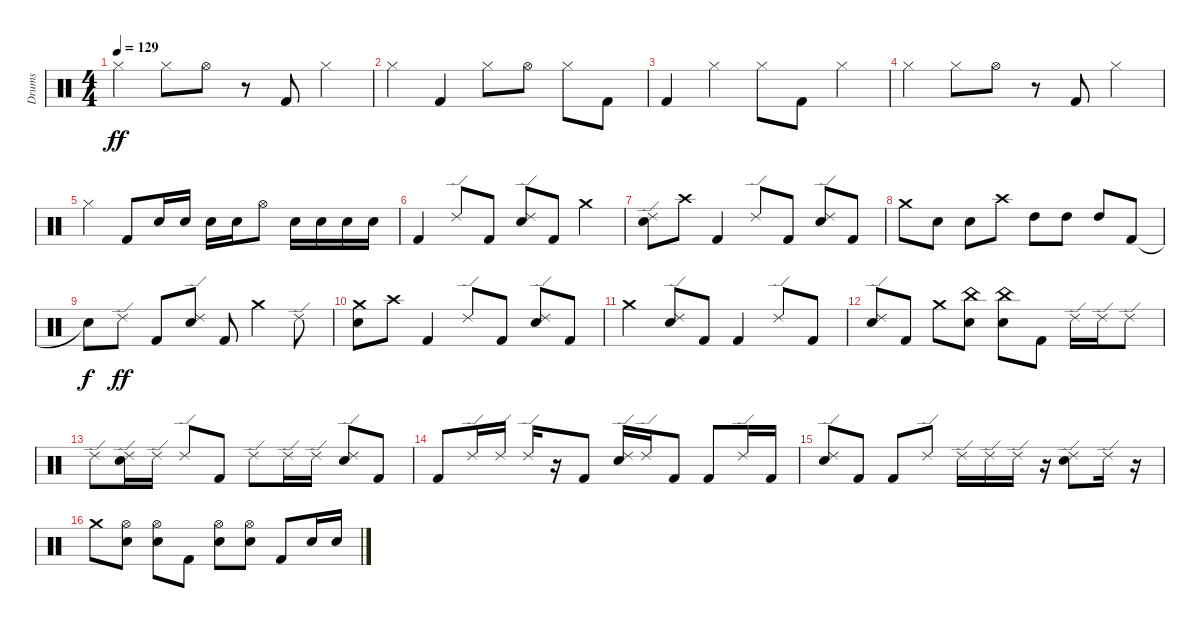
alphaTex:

\track ("Drums" "Drums") {instrument percussion}
\staff {score}
\articulation defaults
\ts (4 4)
\tempo 129
\clef neutral
\ks c "Hi-Hat (closed)".4{dy ff} "Hi-Hat (closed)".8 "Hi-Hat (open)".8
r.8 "Kick (hit) 2".8 "Hi-Hat (closed)".4 |
"Hi-Hat (closed)".4 "Kick (hit) 2".4 "Hi-Hat (closed)".8 "Hi-Hat (open)".8 "Hi-Hat (closed)".8 "Kick (hit) 2".8 |
"Kick (hit) 2".4 "Hi-Hat (closed)".4 "Hi-Hat (closed)".8 "Kick (hit) 2".8 "Hi-Hat (closed)".4 |
"Hi-Hat (closed)".4 "Hi-Hat (closed)".8 "Hi-Hat (open)".8 r.8 "Kick (hit) 2".8 "Hi-Hat (closed)".4 |
"Hi-Hat (closed)".4 "Kick (hit) 2".8 "Electric Snare (hit)".16 "Electric Snare (hit)".16 "Electric Snare (hit)".16 "Electric Snare (hit)".16 "Hi-Hat (open)".8 "Electric Snare (hit)".16 "Electric Snare (hit)".16 "Electric Snare (hit)".16 "Electric Snare (hit)".16 |
"Kick (hit) 2".4 "Ride (edge) 2".8 "Kick (hit) 2".8 ("Electric Snare (hit)" "Ride (edge) 2").8 "Kick (hit) 2".8 "Crash medium (hit)".4 |
("Electric Snare (hit)" "Ride (edge) 2").8 "Crash high (hit)".8 "Kick (hit) 2".4 "Ride (edge) 2".8 "Kick (hit) 2".8 ("Electric Snare (hit)" "Ride (edge) 2").8 "Kick (hit) 2".8 |
"Crash medium (hit)".8 "Electric Snare (hit)".8 "Electric Snare (hit)".8 "Crash high (hit)".8 "High Tom (hit)".8 "High Tom (hit)".8 "High Tom (hit)".8 "Kick (hit) 2".8 |
"Snare (hit)"{t}.8{dy f} "Ride (edge) 2".8{dy ff} "Kick (hit) 2".8 ("Electric Snare (hit)" "Ride (edge) 2").8 "Kick (hit) 2".8 "Crash medium (hit)".4 "Ride (edge) 2".8 |
("Electric Snare (hit)" "Crash medium (hit)").8 "Crash high (hit)".8 "Kick (hit) 2".4 "Ride (edge) 2".8 "Kick (hit) 2".8 ("Electric Snare (hit)" "Ride (edge) 2").8 "Kick (hit) 2".8 |
"Crash medium (hit)".4 ("Electric Snare (hit)" "Ride (edge) 2").8 "Kick (hit) 2".8 "Kick (hit) 2".4 "Ride (edge) 2".8 "Kick (hit) 2".8 |
("Electric Snare (hit)" "Ride (edge) 2").8 "Kick (hit) 2".8 "Crash medium (hit)".8 ("Electric Snare (hit)" "China (hit)").8 ("Electric Snare (hit)" "China (hit)").8 "Kick (hit) 2".8 "Ride (edge) 2".16 "Ride (edge) 2".16 "Ride (edge) 2".8 |
"Ride (edge) 2".8 ("Electric Snare (hit)" "Ride (edge) 2").16 "Ride (edge) 2".16 "Ride (edge) 2".8 "Kick (hit) 2".8 "Ride (edge) 2".8 "Ride (edge) 2".16 "Ride (edge) 2".16 ("Electric Snare (hit)" "Ride (edge) 2").8 "Kick (hit) 2".8 |
"Kick (hit) 2".8 "Ride (edge) 2".16 "Ride (edge) 2".16 "Ride (edge) 2".16 r.16 "Kick (hit) 2".8 ("Electric Snare (hit)" "Ride (edge) 2").16 "Ride (edge) 2".16 "Kick (hit) 2".8 "Kick (hit) 2".8 "Ride (edge) 2".16 "Kick (hit) 2".16 |
("Electric Snare (hit)" "Ride (edge) 2").8 "Kick (hit) 2".8 "Kick (hit) 2".8 "Ride (edge) 2".8 "Ride (edge) 2".16 "Ride (edge) 2".16 "Ride (edge) 2".16 r.16 ("Electric Snare (hit)" "Ride (edge) 2").8 "Ride (edge) 2".16 r.16 |
"Crash medium (hit)".8 ("Electric Snare (hit)" "Hi-Hat (open)").8 ("Electric Snare (hit)" "Hi-Hat (open)").8 "Kick (hit) 2".8 ("Electric Snare (hit)" "Hi-Hat (open)").8 ("Electric Snare (hit)" "Hi-Hat (open)").8 "Kick (hit) 2".8 "Electric Snare (hit)".16 "Electric Snare (hit)".16
